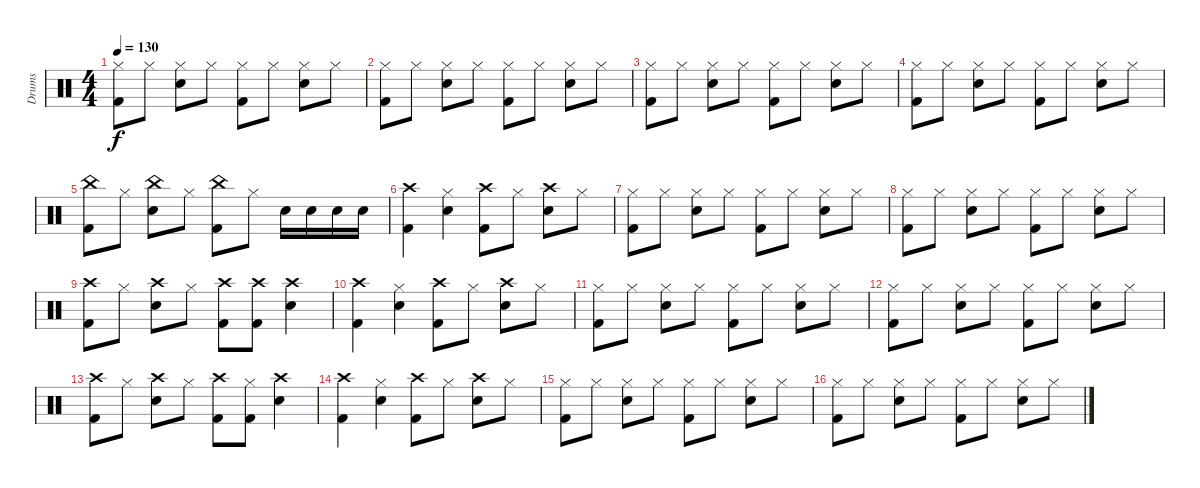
\track ("Drums" "Drums") {instrument percussion}
\staff {score}
\articulation defaults
\ts (4 4)
\tempo 130
\clef neutral
\ks c
("Hi-Hat (closed)" "Kick (hit) 2").8{dy f} "Hi-Hat (closed)".8 ("Hi-Hat (closed)" "Electric Snare (hit)").8 "Hi-Hat (closed)".8 ("Hi-Hat (closed)" "Kick (hit) 2").8 "Hi-Hat (closed)".8 ("Hi-Hat (closed)" "Electric Snare (hit)").8 "Hi-Hat (closed)".8 |
("Hi-Hat (closed)" "Kick (hit) 2").8 "Hi-Hat (closed)".8 ("Hi-Hat (closed)" "Electric Snare (hit)").8 "Hi-Hat (closed)".8 ("Hi-Hat (closed)" "Kick (hit) 2").8 "Hi-Hat (closed)".8 ("Hi-Hat (closed)" "Electric Snare (hit)").8 "Hi-Hat (closed)".8 |
("Hi-Hat (closed)" "Kick (hit) 2").8 "Hi-Hat (closed)".8 ("Hi-Hat (closed)" "Electric Snare (hit)").8 "Hi-Hat (closed)".8 ("Hi-Hat (closed)" "Kick (hit) 2").8 "Hi-Hat (closed)".8 ("Hi-Hat (closed)" "Electric Snare (hit)").8 "Hi-Hat (closed)".8 |
("Hi-Hat (closed)" "Kick (hit) 2").8 "Hi-Hat (closed)".8 ("Hi-Hat (closed)" "Electric Snare (hit)").8 "Hi-Hat (closed)".8 ("Hi-Hat (closed)" "Kick (hit) 2").8 "Hi-Hat (closed)".8 ("Hi-Hat (closed)" "Electric Snare (hit)").8 "Hi-Hat (closed)".8 |
("China (hit)" "Kick (hit) 2").8 "Hi-Hat (closed)".8 ("China (hit)" "Electric Snare (hit)").8 "Hi-Hat (closed)".8 ("China (hit)" "Kick (hit) 2").8 "Hi-Hat (closed)".8 "Electric Snare (hit)".16 "Electric Snare (hit)".16 "Electric Snare (hit)".16 "Electric Snare (hit)".16 |
("Crash high (hit)" "Kick (hit) 2").4 ("Hi-Hat (closed)" "Electric Snare (hit)").4 ("Crash high (hit)" "Kick (hit) 2").8 "Hi-Hat (closed)".8 ("Crash high (hit)" "Electric Snare (hit)").8 "Hi-Hat (closed)".8 |
("Hi-Hat (closed)" "Kick (hit) 2").8 "Hi-Hat (closed)".8 ("Hi-Hat (closed)" "Electric Snare (hit)").8 "Hi-Hat (closed)".8 ("Hi-Hat (closed)" "Kick (hit) 2").8 "Hi-Hat (closed)".8 ("Hi-Hat (closed)" "Electric Snare (hit)").8 "Hi-Hat (closed)".8 |
("Hi-Hat (closed)" "Kick (hit) 2").8 "Hi-Hat (closed)".8 ("Hi-Hat (closed)" "Electric Snare (hit)").8 "Hi-Hat (closed)".8 ("Hi-Hat (closed)" "Kick (hit) 2").8 "Hi-Hat (closed)".8 ("Hi-Hat (closed)" "Electric Snare (hit)").8 "Hi-Hat (closed)".8 |
("Crash high (hit)" "Kick (hit) 2").8 "Hi-Hat (closed)".8 ("Crash high (hit)" "Electric Snare (hit)").8 "Hi-Hat (closed)".8 ("Crash high (hit)" "Kick (hit) 2").8 ("Crash high (hit)" "Kick (hit) 2").8 ("Crash high (hit)" "Electric Snare (hit)").4 |
("Crash high (hit)" "Kick (hit) 2").4 ("Hi-Hat (closed)" "Electric Snare (hit)").4 ("Crash high (hit)" "Kick (hit) 2").8 "Hi-Hat (closed)".8 ("Crash high (hit)" "Electric Snare (hit)").8 "Hi-Hat (closed)".8 |
("Hi-Hat (closed)" "Kick (hit) 2").8 "Hi-Hat (closed)".8 ("Hi-Hat (closed)" "Electric Snare (hit)").8 "Hi-Hat (closed)".8 ("Hi-Hat (closed)" "Kick (hit) 2").8 "Hi-Hat (closed)".8 ("Hi-Hat (closed)" "Electric Snare (hit)").8 "Hi-Hat (closed)".8 |
("Hi-Hat (closed)" "Kick (hit) 2").8 "Hi-Hat (closed)".8 ("Hi-Hat (closed)" "Electric Snare (hit)").8 "Hi-Hat (closed)".8 ("Hi-Hat (closed)" "Kick (hit) 2").8 "Hi-Hat (closed)".8 ("Hi-Hat (closed)" "Electric Snare (hit)").8 "Hi-Hat (closed)".8 |
("Crash high (hit)" "Kick (hit) 2").8 "Hi-Hat (closed)".8 ("Crash high (hit)" "Electric Snare (hit)").8 "Hi-Hat (closed)".8 ("Crash high (hit)" "Kick (hit) 2").8 ("Hi-Hat (closed)" "Kick (hit) 2").8 ("Crash high (hit)" "Electric Snare (hit)").4 |
("Crash high (hit)" "Kick (hit) 2").4 ("Hi-Hat (closed)" "Electric Snare (hit)").4 ("Crash high (hit)" "Kick (hit) 2").8 "Hi-Hat (closed)".8 ("Crash high (hit)" "Electric Snare (hit)").8 "Hi-Hat (closed)".8 |
("Hi-Hat (closed)" "Kick (hit) 2").8 "Hi-Hat (closed)".8 ("Hi-Hat (closed)" "Electric Snare (hit)").8 "Hi-Hat (closed)".8 ("Hi-Hat (closed)" "Kick (hit) 2").8 "Hi-Hat (closed)".8 ("Hi-Hat (closed)" "Electric Snare (hit)").8 "Hi-Hat (closed)".8 |
("Hi-Hat (closed)" "Kick (hit) 2").8 "Hi-Hat (closed)".8 ("Hi-Hat (closed)" "Electric Snare (hit)").8 "Hi-Hat (closed)".8 ("Hi-Hat (closed)" "Kick (hit) 2").8 "Hi-Hat (closed)".8 ("Hi-Hat (closed)" "Electric Snare (hit)").8 "Hi-Hat (closed)".8
